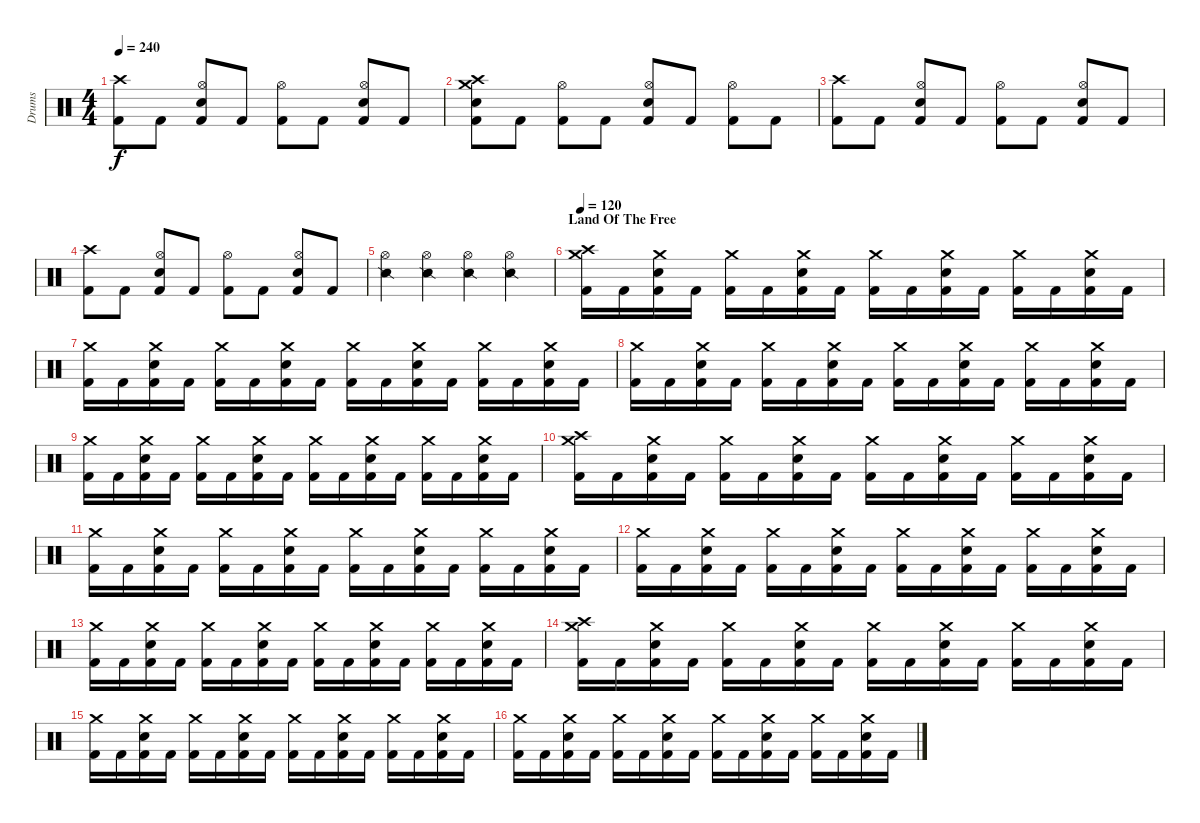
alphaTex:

\track ("Drums" "Drums") {instrument percussion}
\staff {score}
\articulation defaults
\ts (4 4)
\tempo 240
\clef neutral
\ks c
("Crash high (hit)" "Kick (hit) 2").8{dy f} "Kick (hit) 2".8 ("Hi-Hat (open)" "Kick (hit) 2" "Electric Snare (hit)").8 "Kick (hit) 2".8 ("Hi-Hat (open)" "Kick (hit) 2").8 "Kick (hit) 2".8 ("Hi-Hat (open)" "Kick (hit) 2" "Electric Snare (hit)").8 "Kick (hit) 2".8 |
("Crash high (hit)" "Kick (hit) 2" "Crash medium (hit)" "Electric Snare (hit)").8 "Kick (hit) 2".8 ("Hi-Hat (open)" "Kick (hit) 2").8 "Kick (hit) 2".8 ("Hi-Hat (open)" "Kick (hit) 2" "Electric Snare (hit)").8 "Kick (hit) 2".8 ("Hi-Hat (open)" "Kick (hit) 2").8 "Kick (hit) 2".8 |
("Crash high (hit)" "Kick (hit) 2").8 "Kick (hit) 2".8 ("Hi-Hat (open)" "Kick (hit) 2" "Electric Snare (hit)").8 "Kick (hit) 2".8 ("Hi-Hat (open)" "Kick (hit) 2").8 "Kick (hit) 2".8 ("Hi-Hat (open)" "Kick (hit) 2" "Electric Snare (hit)").8 "Kick (hit) 2".8 |
("Crash high (hit)" "Kick (hit) 2").8 "Kick (hit) 2".8 ("Hi-Hat (open)" "Kick (hit) 2" "Electric Snare (hit)").8 "Kick (hit) 2".8 ("Hi-Hat (open)" "Kick (hit) 2").8 "Kick (hit) 2".8 ("Hi-Hat (open)" "Kick (hit) 2" "Electric Snare (hit)").8 "Kick (hit) 2".8 |
("Snare (side stick) 2" "Hi-Hat (open)").4 ("Snare (side stick) 2" "Hi-Hat (open)").4 ("Snare (side stick) 2" "Hi-Hat (open)").4 ("Snare (side stick) 2" "Hi-Hat (open)").4 |
\section ("" "Land Of The Free")
\tempo 120
("Crash high (hit)" "Crash medium (hit)" "Kick (hit) 2").16 "Kick (hit) 2".16 ("Crash medium (hit)" "Kick (hit) 2" "Electric Snare (hit)").16 "Kick (hit) 2".16 ("Crash medium (hit)" "Kick (hit) 2").16 "Kick (hit) 2".16 ("Crash medium (hit)" "Kick (hit) 2" "Electric Snare (hit)").16 "Kick (hit) 2".16 ("Crash medium (hit)" "Kick (hit) 2").16 "Kick (hit) 2".16 ("Crash medium (hit)" "Kick (hit) 2" "Electric Snare (hit)").16 "Kick (hit) 2".16 ("Crash medium (hit)" "Kick (hit) 2").16 "Kick (hit) 2".16 ("Crash medium (hit)" "Kick (hit) 2" "Electric Snare (hit)").16 "Kick (hit) 2".16 |
("Crash medium (hit)" "Kick (hit) 2").16 "Kick (hit) 2".16 ("Crash medium (hit)" "Kick (hit) 2" "Electric Snare (hit)").16 "Kick (hit) 2".16 ("Crash medium (hit)" "Kick (hit) 2").16 "Kick (hit) 2".16 ("Crash medium (hit)" "Kick (hit) 2" "Electric Snare (hit)").16 "Kick (hit) 2".16 ("Crash medium (hit)" "Kick (hit) 2").16 "Kick (hit) 2".16 ("Crash medium (hit)" "Kick (hit) 2" "Electric Snare (hit)").16 "Kick (hit) 2".16 ("Crash medium (hit)" "Kick (hit) 2").16 "Kick (hit) 2".16 ("Crash medium (hit)" "Kick (hit) 2" "Electric Snare (hit)").16 "Kick (hit) 2".16 |
("Crash medium (hit)" "Kick (hit) 2").16 "Kick (hit) 2".16 ("Crash medium (hit)" "Kick (hit) 2" "Electric Snare (hit)").16 "Kick (hit) 2".16 ("Crash medium (hit)" "Kick (hit) 2").16 "Kick (hit) 2".16 ("Crash medium (hit)" "Kick (hit) 2" "Electric Snare (hit)").16 "Kick (hit) 2".16 ("Crash medium (hit)" "Kick (hit) 2").16 "Kick (hit) 2".16 ("Crash medium (hit)" "Kick (hit) 2" "Electric Snare (hit)").16 "Kick (hit) 2".16 ("Crash medium (hit)" "Kick (hit) 2").16 "Kick (hit) 2".16 ("Crash medium (hit)" "Kick (hit) 2" "Electric Snare (hit)").16 "Kick (hit) 2".16 |
("Crash medium (hit)" "Kick (hit) 2").16 "Kick (hit) 2".16 ("Crash medium (hit)" "Kick (hit) 2" "Electric Snare (hit)").16 "Kick (hit) 2".16 ("Crash medium (hit)" "Kick (hit) 2").16 "Kick (hit) 2".16 ("Crash medium (hit)" "Kick (hit) 2" "Electric Snare (hit)").16 "Kick (hit) 2".16 ("Crash medium (hit)" "Kick (hit) 2").16 "Kick (hit) 2".16 ("Crash medium (hit)" "Kick (hit) 2" "Electric Snare (hit)").16 "Kick (hit) 2".16 ("Crash medium (hit)" "Kick (hit) 2").16 "Kick (hit) 2".16 ("Crash medium (hit)" "Kick (hit) 2" "Electric Snare (hit)").16 "Kick (hit) 2".16 |
("Crash high (hit)" "Crash medium (hit)" "Kick (hit) 2").16 "Kick (hit) 2".16 ("Crash medium (hit)" "Kick (hit) 2" "Electric Snare (hit)").16 "Kick (hit) 2".16 ("Crash medium (hit)" "Kick (hit) 2").16 "Kick (hit) 2".16 ("Crash medium (hit)" "Kick (hit) 2" "Electric Snare (hit)").16 "Kick (hit) 2".16 ("Crash medium (hit)" "Kick (hit) 2").16 "Kick (hit) 2".16 ("Crash medium (hit)" "Kick (hit) 2" "Electric Snare (hit)").16 "Kick (hit) 2".16 ("Crash medium (hit)" "Kick (hit) 2").16 "Kick (hit) 2".16 ("Crash medium (hit)" "Kick (hit) 2" "Electric Snare (hit)").16 "Kick (hit) 2".16 |
("Crash medium (hit)" "Kick (hit) 2").16 "Kick (hit) 2".16 ("Crash medium (hit)" "Kick (hit) 2" "Electric Snare (hit)").16 "Kick (hit) 2".16 ("Crash medium (hit)" "Kick (hit) 2").16 "Kick (hit) 2".16 ("Crash medium (hit)" "Kick (hit) 2" "Electric Snare (hit)").16 "Kick (hit) 2".16 ("Crash medium (hit)" "Kick (hit) 2").16 "Kick (hit) 2".16 ("Crash medium (hit)" "Kick (hit) 2" "Electric Snare (hit)").16 "Kick (hit) 2".16 ("Crash medium (hit)" "Kick (hit) 2").16 "Kick (hit) 2".16 ("Crash medium (hit)" "Kick (hit) 2" "Electric Snare (hit)").16 "Kick (hit) 2".16 |
("Crash medium (hit)" "Kick (hit) 2").16 "Kick (hit) 2".16 ("Crash medium (hit)" "Kick (hit) 2" "Electric Snare (hit)").16 "Kick (hit) 2".16 ("Crash medium (hit)" "Kick (hit) 2").16 "Kick (hit) 2".16 ("Crash medium (hit)" "Kick (hit) 2" "Electric Snare (hit)").16 "Kick (hit) 2".16 ("Crash medium (hit)" "Kick (hit) 2").16 "Kick (hit) 2".16 ("Crash medium (hit)" "Kick (hit) 2" "Electric Snare (hit)").16 "Kick (hit) 2".16 ("Crash medium (hit)" "Kick (hit) 2").16 "Kick (hit) 2".16 ("Crash medium (hit)" "Kick (hit) 2" "Electric Snare (hit)").16 "Kick (hit) 2".16 |
("Crash medium (hit)" "Kick (hit) 2").16 "Kick (hit) 2".16 ("Crash medium (hit)" "Kick (hit) 2" "Electric Snare (hit)").16 "Kick (hit) 2".16 ("Crash medium (hit)" "Kick (hit) 2").16 "Kick (hit) 2".16 ("Crash medium (hit)" "Kick (hit) 2" "Electric Snare (hit)").16 "Kick (hit) 2".16 ("Crash medium (hit)" "Kick (hit) 2").16 "Kick (hit) 2".16 ("Crash medium (hit)" "Kick (hit) 2" "Electric Snare (hit)").16 "Kick (hit) 2".16 ("Crash medium (hit)" "Kick (hit) 2").16 "Kick (hit) 2".16 ("Crash medium (hit)" "Kick (hit) 2" "Electric Snare (hit)").16 "Kick (hit) 2".16 |
("Crash high (hit)" "Crash medium (hit)" "Kick (hit) 2").16 "Kick (hit) 2".16 ("Crash medium (hit)" "Kick (hit) 2" "Electric Snare (hit)").16 "Kick (hit) 2".16 ("Crash medium (hit)" "Kick (hit) 2").16 "Kick (hit) 2".16 ("Crash medium (hit)" "Kick (hit) 2" "Electric Snare (hit)").16 "Kick (hit) 2".16 ("Crash medium (hit)" "Kick (hit) 2").16 "Kick (hit) 2".16 ("Crash medium (hit)" "Kick (hit) 2" "Electric Snare (hit)").16 "Kick (hit) 2".16 ("Crash medium (hit)" "Kick (hit) 2").16 "Kick (hit) 2".16 ("Crash medium (hit)" "Kick (hit) 2" "Electric Snare (hit)").16 "Kick (hit) 2".16 |
("Crash medium (hit)" "Kick (hit) 2").16 "Kick (hit) 2".16 ("Crash medium (hit)" "Kick (hit) 2" "Electric Snare (hit)").16 "Kick (hit) 2".16 ("Crash medium (hit)" "Kick (hit) 2").16 "Kick (hit) 2".16 ("Crash medium (hit)" "Kick (hit) 2" "Electric Snare (hit)").16 "Kick (hit) 2".16 ("Crash medium (hit)" "Kick (hit) 2").16 "Kick (hit) 2".16 ("Crash medium (hit)" "Kick (hit) 2" "Electric Snare (hit)").16 "Kick (hit) 2".16 ("Crash medium (hit)" "Kick (hit) 2").16 "Kick (hit) 2".16 ("Crash medium (hit)" "Kick (hit) 2" "Electric Snare (hit)").16 "Kick (hit) 2".16 |
("Crash medium (hit)" "Kick (hit) 2").16 "Kick (hit) 2".16 ("Crash medium (hit)" "Kick (hit) 2" "Electric Snare (hit)").16 "Kick (hit) 2".16 ("Crash medium (hit)" "Kick (hit) 2").16 "Kick (hit) 2".16 ("Crash medium (hit)" "Kick (hit) 2" "Electric Snare (hit)").16 "Kick (hit) 2".16 ("Crash medium (hit)" "Kick (hit) 2").16 "Kick (hit) 2".16 ("Crash medium (hit)" "Kick (hit) 2" "Electric Snare (hit)").16 "Kick (hit) 2".16 ("Crash medium (hit)" "Kick (hit) 2").16 "Kick (hit) 2".16 ("Crash medium (hit)" "Kick (hit) 2" "Electric Snare (hit)").16 "Kick (hit) 2".16
